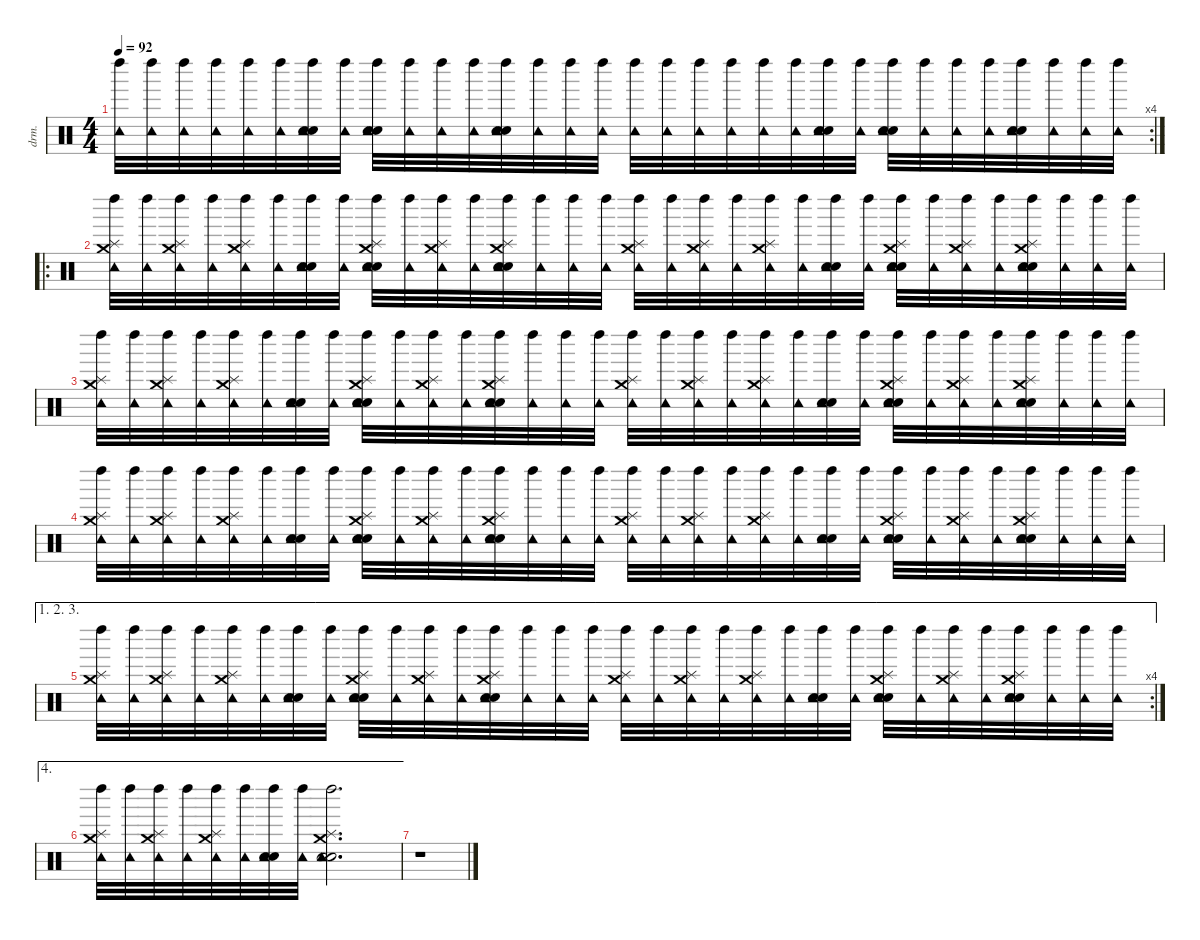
\defaultSystemsLayout 4
\hideDynamics
\bracketExtendMode nobrackets
\otherSystemsTrackNameOrientation horizontal
\track ("Percussions" "drm.") {instrument percussion}
\staff {score}
\articulation defaults
\rc 4
\ts (4 4)
\tempo 92
\clef neutral
\ks c
("Tambourine (hit)" "Left Maraca (hit)").32{dy mp beam Down} ("Tambourine (hit)" "Left Maraca (hit)").32{beam Down} ("Tambourine (hit)" "Left Maraca (hit)").32{beam Down} ("Tambourine (hit)" "Left Maraca (hit)").32{beam Down} ("Tambourine (hit)" "Left Maraca (hit)").32{beam Down} ("Tambourine (hit)" "Left Maraca (hit)").32{beam Down} ("Snare (hit) 2" "Snare (hit) 2" "Tambourine (hit)" "Left Maraca (hit)").32{dy fff beam Down} ("Tambourine (hit)" "Left Maraca (hit)").32{dy mp beam Down} ("Snare (hit) 2" "Snare (hit) 2" "Tambourine (hit)" "Left Maraca (hit)").32{dy fff beam Down} ("Tambourine (hit)" "Left Maraca (hit)").32{dy mp beam Down} ("Tambourine (hit)" "Left Maraca (hit)").32{beam Down} ("Tambourine (hit)" "Left Maraca (hit)").32{beam Down} ("Snare (hit) 2" "Snare (hit) 2" "Tambourine (hit)" "Left Maraca (hit)").32{dy fff beam Down} ("Tambourine (hit)" "Left Maraca (hit)").32{dy mp beam Down} ("Tambourine (hit)" "Left Maraca (hit)").32{beam Down} ("Tambourine (hit)" "Left Maraca (hit)").32{beam Down} ("Tambourine (hit)" "Left Maraca (hit)").32{beam Down} ("Tambourine (hit)" "Left Maraca (hit)").32{beam Down} ("Tambourine (hit)" "Left Maraca (hit)").32{beam Down} ("Tambourine (hit)" "Left Maraca (hit)").32{beam Down} ("Tambourine (hit)" "Left Maraca (hit)").32{beam Down} ("Tambourine (hit)" "Left Maraca (hit)").32{beam Down} ("Snare (hit) 2" "Snare (hit) 2" "Tambourine (hit)" "Left Maraca (hit)").32{dy fff beam Down} ("Tambourine (hit)" "Left Maraca (hit)").32{dy mp beam Down} ("Snare (hit) 2" "Snare (hit) 2" "Tambourine (hit)" "Left Maraca (hit)").32{dy fff beam Down} ("Tambourine (hit)" "Left Maraca (hit)").32{dy mp beam Down} ("Tambourine (hit)" "Left Maraca (hit)").32{beam Down} ("Tambourine (hit)" "Left Maraca (hit)").32{beam Down} ("Snare (hit) 2" "Snare (hit) 2" "Tambourine (hit)" "Left Maraca (hit)").32{dy fff beam Down} ("Tambourine (hit)" "Left Maraca (hit)").32{dy mp beam Down} ("Tambourine (hit)" "Left Maraca (hit)").32{beam Down} ("Tambourine (hit)" "Left Maraca (hit)").32{beam Down} |
\ro
("Splash (hit)" "Crash medium (hit)" "Tambourine (hit)" "Left Maraca (hit)").32{dy fff beam Down} ("Tambourine (hit)" "Left Maraca (hit)").32{beam Down} ("Splash (hit)" "Crash medium (hit)" "Tambourine (hit)" "Left Maraca (hit)").32{beam Down} ("Tambourine (hit)" "Left Maraca (hit)").32{beam Down} ("Splash (hit)" "Crash medium (hit)" "Tambourine (hit)" "Left Maraca (hit)").32{beam Down} ("Tambourine (hit)" "Left Maraca (hit)").32{beam Down} ("Snare (hit) 2" "Snare (hit) 2" "Tambourine (hit)" "Left Maraca (hit)").32{beam Down} ("Tambourine (hit)" "Left Maraca (hit)").32{beam Down} ("Snare (hit) 2" "Snare (hit) 2" "Splash (hit)" "Crash medium (hit)" "Tambourine (hit)" "Left Maraca (hit)").32{beam Down} ("Tambourine (hit)" "Left Maraca (hit)").32{beam Down} ("Splash (hit)" "Crash medium (hit)" "Tambourine (hit)" "Left Maraca (hit)").32{beam Down} ("Tambourine (hit)" "Left Maraca (hit)").32{beam Down} ("Snare (hit) 2" "Snare (hit) 2" "Splash (hit)" "Crash medium (hit)" "Tambourine (hit)" "Left Maraca (hit)").32{beam Down} ("Tambourine (hit)" "Left Maraca (hit)").32{beam Down} ("Tambourine (hit)" "Left Maraca (hit)").32{beam Down} ("Tambourine (hit)" "Left Maraca (hit)").32{beam Down} ("Splash (hit)" "Crash medium (hit)" "Tambourine (hit)" "Left Maraca (hit)").32{beam Down} ("Tambourine (hit)" "Left Maraca (hit)").32{beam Down} ("Splash (hit)" "Crash medium (hit)" "Tambourine (hit)" "Left Maraca (hit)").32{beam Down} ("Tambourine (hit)" "Left Maraca (hit)").32{beam Down} ("Splash (hit)" "Crash medium (hit)" "Tambourine (hit)" "Left Maraca (hit)").32{beam Down} ("Tambourine (hit)" "Left Maraca (hit)").32{beam Down} ("Snare (hit) 2" "Snare (hit) 2" "Tambourine (hit)" "Left Maraca (hit)").32{beam Down} ("Tambourine (hit)" "Left Maraca (hit)").32{beam Down} ("Snare (hit) 2" "Snare (hit) 2" "Splash (hit)" "Crash medium (hit)" "Tambourine (hit)" "Left Maraca (hit)").32{beam Down} ("Tambourine (hit)" "Left Maraca (hit)").32{beam Down} ("Splash (hit)" "Crash medium (hit)" "Tambourine (hit)" "Left Maraca (hit)").32{beam Down} ("Tambourine (hit)" "Left Maraca (hit)").32{beam Down} ("Snare (hit) 2" "Snare (hit) 2" "Splash (hit)" "Crash medium (hit)" "Tambourine (hit)" "Left Maraca (hit)").32{beam Down} ("Tambourine (hit)" "Left Maraca (hit)").32{beam Down} ("Tambourine (hit)" "Left Maraca (hit)").32{beam Down} ("Tambourine (hit)" "Left Maraca (hit)").32{beam Down} |
("Splash (hit)" "Crash medium (hit)" "Tambourine (hit)" "Left Maraca (hit)").32{beam Down} ("Tambourine (hit)" "Left Maraca (hit)").32{beam Down} ("Splash (hit)" "Crash medium (hit)" "Tambourine (hit)" "Left Maraca (hit)").32{beam Down} ("Tambourine (hit)" "Left Maraca (hit)").32{beam Down} ("Splash (hit)" "Crash medium (hit)" "Tambourine (hit)" "Left Maraca (hit)").32{beam Down} ("Tambourine (hit)" "Left Maraca (hit)").32{beam Down} ("Snare (hit) 2" "Snare (hit) 2" "Tambourine (hit)" "Left Maraca (hit)").32{beam Down} ("Tambourine (hit)" "Left Maraca (hit)").32{beam Down} ("Snare (hit) 2" "Snare (hit) 2" "Splash (hit)" "Crash medium (hit)" "Tambourine (hit)" "Left Maraca (hit)").32{beam Down} ("Tambourine (hit)" "Left Maraca (hit)").32{beam Down} ("Splash (hit)" "Crash medium (hit)" "Tambourine (hit)" "Left Maraca (hit)").32{beam Down} ("Tambourine (hit)" "Left Maraca (hit)").32{beam Down} ("Snare (hit) 2" "Snare (hit) 2" "Splash (hit)" "Crash medium (hit)" "Tambourine (hit)" "Left Maraca (hit)").32{beam Down} ("Tambourine (hit)" "Left Maraca (hit)").32{beam Down} ("Tambourine (hit)" "Left Maraca (hit)").32{beam Down} ("Tambourine (hit)" "Left Maraca (hit)").32{beam Down} ("Splash (hit)" "Crash medium (hit)" "Tambourine (hit)" "Left Maraca (hit)").32{beam Down} ("Tambourine (hit)" "Left Maraca (hit)").32{beam Down} ("Splash (hit)" "Crash medium (hit)" "Tambourine (hit)" "Left Maraca (hit)").32{beam Down} ("Tambourine (hit)" "Left Maraca (hit)").32{beam Down} ("Splash (hit)" "Crash medium (hit)" "Tambourine (hit)" "Left Maraca (hit)").32{beam Down} ("Tambourine (hit)" "Left Maraca (hit)").32{beam Down} ("Snare (hit) 2" "Snare (hit) 2" "Tambourine (hit)" "Left Maraca (hit)").32{beam Down} ("Tambourine (hit)" "Left Maraca (hit)").32{beam Down} ("Snare (hit) 2" "Snare (hit) 2" "Splash (hit)" "Crash medium (hit)" "Tambourine (hit)" "Left Maraca (hit)").32{beam Down} ("Tambourine (hit)" "Left Maraca (hit)").32{beam Down} ("Splash (hit)" "Crash medium (hit)" "Tambourine (hit)" "Left Maraca (hit)").32{beam Down} ("Tambourine (hit)" "Left Maraca (hit)").32{beam Down} ("Snare (hit) 2" "Snare (hit) 2" "Splash (hit)" "Crash medium (hit)" "Tambourine (hit)" "Left Maraca (hit)").32{beam Down} ("Tambourine (hit)" "Left Maraca (hit)").32{beam Down} ("Tambourine (hit)" "Left Maraca (hit)").32{beam Down} ("Tambourine (hit)" "Left Maraca (hit)").32{beam Down} |
("Splash (hit)" "Crash medium (hit)" "Tambourine (hit)" "Left Maraca (hit)").32{beam Down} ("Tambourine (hit)" "Left Maraca (hit)").32{beam Down} ("Splash (hit)" "Crash medium (hit)" "Tambourine (hit)" "Left Maraca (hit)").32{beam Down} ("Tambourine (hit)" "Left Maraca (hit)").32{beam Down} ("Splash (hit)" "Crash medium (hit)" "Tambourine (hit)" "Left Maraca (hit)").32{beam Down} ("Tambourine (hit)" "Left Maraca (hit)").32{beam Down} ("Snare (hit) 2" "Snare (hit) 2" "Tambourine (hit)" "Left Maraca (hit)").32{beam Down} ("Tambourine (hit)" "Left Maraca (hit)").32{beam Down} ("Snare (hit) 2" "Snare (hit) 2" "Splash (hit)" "Crash medium (hit)" "Tambourine (hit)" "Left Maraca (hit)").32{beam Down} ("Tambourine (hit)" "Left Maraca (hit)").32{beam Down} ("Splash (hit)" "Crash medium (hit)" "Tambourine (hit)" "Left Maraca (hit)").32{beam Down} ("Tambourine (hit)" "Left Maraca (hit)").32{beam Down} ("Snare (hit) 2" "Snare (hit) 2" "Splash (hit)" "Crash medium (hit)" "Tambourine (hit)" "Left Maraca (hit)").32{beam Down} ("Tambourine (hit)" "Left Maraca (hit)").32{beam Down} ("Tambourine (hit)" "Left Maraca (hit)").32{beam Down} ("Tambourine (hit)" "Left Maraca (hit)").32{beam Down} ("Splash (hit)" "Crash medium (hit)" "Tambourine (hit)" "Left Maraca (hit)").32{beam Down} ("Tambourine (hit)" "Left Maraca (hit)").32{beam Down} ("Splash (hit)" "Crash medium (hit)" "Tambourine (hit)" "Left Maraca (hit)").32{beam Down} ("Tambourine (hit)" "Left Maraca (hit)").32{beam Down} ("Splash (hit)" "Crash medium (hit)" "Tambourine (hit)" "Left Maraca (hit)").32{beam Down} ("Tambourine (hit)" "Left Maraca (hit)").32{beam Down} ("Snare (hit) 2" "Snare (hit) 2" "Tambourine (hit)" "Left Maraca (hit)").32{beam Down} ("Tambourine (hit)" "Left Maraca (hit)").32{beam Down} ("Snare (hit) 2" "Snare (hit) 2" "Splash (hit)" "Crash medium (hit)" "Tambourine (hit)" "Left Maraca (hit)").32{beam Down} ("Tambourine (hit)" "Left Maraca (hit)").32{beam Down} ("Splash (hit)" "Crash medium (hit)" "Tambourine (hit)" "Left Maraca (hit)").32{beam Down} ("Tambourine (hit)" "Left Maraca (hit)").32{beam Down} ("Snare (hit) 2" "Snare (hit) 2" "Splash (hit)" "Crash medium (hit)" "Tambourine (hit)" "Left Maraca (hit)").32{beam Down} ("Tambourine (hit)" "Left Maraca (hit)").32{beam Down} ("Tambourine (hit)" "Left Maraca (hit)").32{beam Down} ("Tambourine (hit)" "Left Maraca (hit)").32{beam Down} |
\ae (1 2 3)
\rc 4
("Splash (hit)" "Crash medium (hit)" "Tambourine (hit)" "Left Maraca (hit)").32{beam Down} ("Tambourine (hit)" "Left Maraca (hit)").32{beam Down} ("Splash (hit)" "Crash medium (hit)" "Tambourine (hit)" "Left Maraca (hit)").32{beam Down} ("Tambourine (hit)" "Left Maraca (hit)").32{beam Down} ("Splash (hit)" "Crash medium (hit)" "Tambourine (hit)" "Left Maraca (hit)").32{beam Down} ("Tambourine (hit)" "Left Maraca (hit)").32{beam Down} ("Snare (hit) 2" "Snare (hit) 2" "Tambourine (hit)" "Left Maraca (hit)").32{beam Down} ("Tambourine (hit)" "Left Maraca (hit)").32{beam Down} ("Snare (hit) 2" "Snare (hit) 2" "Splash (hit)" "Crash medium (hit)" "Tambourine (hit)" "Left Maraca (hit)").32{beam Down} ("Tambourine (hit)" "Left Maraca (hit)").32{beam Down} ("Splash (hit)" "Crash medium (hit)" "Tambourine (hit)" "Left Maraca (hit)").32{beam Down} ("Tambourine (hit)" "Left Maraca (hit)").32{beam Down} ("Snare (hit) 2" "Snare (hit) 2" "Splash (hit)" "Crash medium (hit)" "Tambourine (hit)" "Left Maraca (hit)").32{beam Down} ("Tambourine (hit)" "Left Maraca (hit)").32{beam Down} ("Tambourine (hit)" "Left Maraca (hit)").32{beam Down} ("Tambourine (hit)" "Left Maraca (hit)").32{beam Down} ("Splash (hit)" "Crash medium (hit)" "Tambourine (hit)" "Left Maraca (hit)").32{beam Down} ("Tambourine (hit)" "Left Maraca (hit)").32{beam Down} ("Splash (hit)" "Crash medium (hit)" "Tambourine (hit)" "Left Maraca (hit)").32{beam Down} ("Tambourine (hit)" "Left Maraca (hit)").32{beam Down} ("Splash (hit)" "Crash medium (hit)" "Tambourine (hit)" "Left Maraca (hit)").32{beam Down} ("Tambourine (hit)" "Left Maraca (hit)").32{beam Down} ("Snare (hit) 2" "Snare (hit) 2" "Tambourine (hit)" "Left Maraca (hit)").32{beam Down} ("Tambourine (hit)" "Left Maraca (hit)").32{beam Down} ("Snare (hit) 2" "Snare (hit) 2" "Splash (hit)" "Crash medium (hit)" "Tambourine (hit)" "Left Maraca (hit)").32{beam Down} ("Tambourine (hit)" "Left Maraca (hit)").32{beam Down} ("Splash (hit)" "Crash medium (hit)" "Tambourine (hit)" "Left Maraca (hit)").32{beam Down} ("Tambourine (hit)" "Left Maraca (hit)").32{beam Down} ("Snare (hit) 2" "Snare (hit) 2" "Splash (hit)" "Crash medium (hit)" "Tambourine (hit)" "Left Maraca (hit)").32{beam Down} ("Tambourine (hit)" "Left Maraca (hit)").32{beam Down} ("Tambourine (hit)" "Left Maraca (hit)").32{beam Down} ("Tambourine (hit)" "Left Maraca (hit)").32{beam Down} |
\ae 4
("Splash (hit)" "Crash medium (hit)" "Tambourine (hit)" "Left Maraca (hit)").32{beam Down} ("Tambourine (hit)" "Left Maraca (hit)").32{beam Down} ("Splash (hit)" "Crash medium (hit)" "Tambourine (hit)" "Left Maraca (hit)").32{beam Down} ("Tambourine (hit)" "Left Maraca (hit)").32{beam Down} ("Splash (hit)" "Crash medium (hit)" "Tambourine (hit)" "Left Maraca (hit)").32{beam Down} ("Tambourine (hit)" "Left Maraca (hit)").32{beam Down} ("Snare (hit) 2" "Snare (hit) 2" "Tambourine (hit)" "Left Maraca (hit)").32{beam Down} ("Tambourine (hit)" "Left Maraca (hit)").32{beam Down} ("Snare (hit) 2" "Snare (hit) 2" "Splash (hit)" "Crash medium (hit)" "Tambourine (hit)" "Left Maraca (hit)").2{d beam Down} |
r.1{beam Down}
